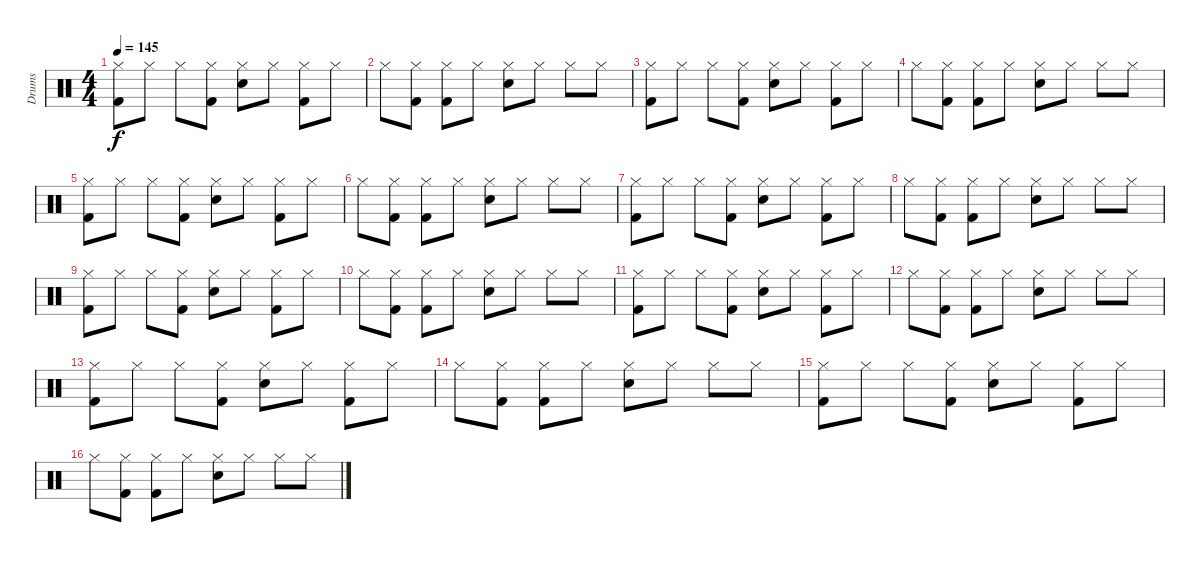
\track ("Drums" "Drums") {instrument percussion}
\staff {score}
\articulation defaults
\ts (4 4)
\tempo 145
\clef neutral
\ks c
("Kick (hit) 2" "Hi-Hat (closed)").8{dy f} "Hi-Hat (closed)".8 "Hi-Hat (closed)".8 ("Kick (hit) 2" "Hi-Hat (closed)").8 ("Electric Snare (hit)" "Hi-Hat (closed)").8 "Hi-Hat (closed)".8 ("Kick (hit) 2" "Hi-Hat (closed)").8 "Hi-Hat (closed)".8 |
"Hi-Hat (closed)".8 ("Kick (hit) 2" "Hi-Hat (closed)").8 ("Kick (hit) 2" "Hi-Hat (closed)").8 "Hi-Hat (closed)".8 ("Electric Snare (hit)" "Hi-Hat (closed)").8 "Hi-Hat (closed)".8 "Hi-Hat (closed)".8 "Hi-Hat (closed)".8 |
("Kick (hit) 2" "Hi-Hat (closed)").8 "Hi-Hat (closed)".8 "Hi-Hat (closed)".8 ("Kick (hit) 2" "Hi-Hat (closed)").8 ("Electric Snare (hit)" "Hi-Hat (closed)").8 "Hi-Hat (closed)".8 ("Kick (hit) 2" "Hi-Hat (closed)").8 "Hi-Hat (closed)".8 |
"Hi-Hat (closed)".8 ("Kick (hit) 2" "Hi-Hat (closed)").8 ("Kick (hit) 2" "Hi-Hat (closed)").8 "Hi-Hat (closed)".8 ("Electric Snare (hit)" "Hi-Hat (closed)").8 "Hi-Hat (closed)".8 "Hi-Hat (closed)".8 "Hi-Hat (closed)".8 |
("Kick (hit) 2" "Hi-Hat (closed)").8 "Hi-Hat (closed)".8 "Hi-Hat (closed)".8 ("Kick (hit) 2" "Hi-Hat (closed)").8 ("Electric Snare (hit)" "Hi-Hat (closed)").8 "Hi-Hat (closed)".8 ("Kick (hit) 2" "Hi-Hat (closed)").8 "Hi-Hat (closed)".8 |
"Hi-Hat (closed)".8 ("Kick (hit) 2" "Hi-Hat (closed)").8 ("Kick (hit) 2" "Hi-Hat (closed)").8 "Hi-Hat (closed)".8 ("Electric Snare (hit)" "Hi-Hat (closed)").8 "Hi-Hat (closed)".8 "Hi-Hat (closed)".8 "Hi-Hat (closed)".8 |
("Kick (hit) 2" "Hi-Hat (closed)").8 "Hi-Hat (closed)".8 "Hi-Hat (closed)".8 ("Kick (hit) 2" "Hi-Hat (closed)").8 ("Electric Snare (hit)" "Hi-Hat (closed)").8 "Hi-Hat (closed)".8 ("Kick (hit) 2" "Hi-Hat (closed)").8 "Hi-Hat (closed)".8 |
"Hi-Hat (closed)".8 ("Kick (hit) 2" "Hi-Hat (closed)").8 ("Kick (hit) 2" "Hi-Hat (closed)").8 "Hi-Hat (closed)".8 ("Electric Snare (hit)" "Hi-Hat (closed)").8 "Hi-Hat (closed)".8 "Hi-Hat (closed)".8 "Hi-Hat (closed)".8 |
("Kick (hit) 2" "Hi-Hat (closed)").8 "Hi-Hat (closed)".8 "Hi-Hat (closed)".8 ("Kick (hit) 2" "Hi-Hat (closed)").8 ("Electric Snare (hit)" "Hi-Hat (closed)").8 "Hi-Hat (closed)".8 ("Kick (hit) 2" "Hi-Hat (closed)").8 "Hi-Hat (closed)".8 |
"Hi-Hat (closed)".8 ("Kick (hit) 2" "Hi-Hat (closed)").8 ("Kick (hit) 2" "Hi-Hat (closed)").8 "Hi-Hat (closed)".8 ("Electric Snare (hit)" "Hi-Hat (closed)").8 "Hi-Hat (closed)".8 "Hi-Hat (closed)".8 "Hi-Hat (closed)".8 |
("Kick (hit) 2" "Hi-Hat (closed)").8 "Hi-Hat (closed)".8 "Hi-Hat (closed)".8 ("Kick (hit) 2" "Hi-Hat (closed)").8 ("Electric Snare (hit)" "Hi-Hat (closed)").8 "Hi-Hat (closed)".8 ("Kick (hit) 2" "Hi-Hat (closed)").8 "Hi-Hat (closed)".8 |
"Hi-Hat (closed)".8 ("Kick (hit) 2" "Hi-Hat (closed)").8 ("Kick (hit) 2" "Hi-Hat (closed)").8 "Hi-Hat (closed)".8 ("Electric Snare (hit)" "Hi-Hat (closed)").8 "Hi-Hat (closed)".8 "Hi-Hat (closed)".8 "Hi-Hat (closed)".8 |
("Kick (hit) 2" "Hi-Hat (closed)").8 "Hi-Hat (closed)".8 "Hi-Hat (closed)".8 ("Kick (hit) 2" "Hi-Hat (closed)").8 ("Electric Snare (hit)" "Hi-Hat (closed)").8 "Hi-Hat (closed)".8 ("Kick (hit) 2" "Hi-Hat (closed)").8 "Hi-Hat (closed)".8 |
"Hi-Hat (closed)".8 ("Kick (hit) 2" "Hi-Hat (closed)").8 ("Kick (hit) 2" "Hi-Hat (closed)").8 "Hi-Hat (closed)".8 ("Electric Snare (hit)" "Hi-Hat (closed)").8 "Hi-Hat (closed)".8 "Hi-Hat (closed)".8 "Hi-Hat (closed)".8 |
("Kick (hit) 2" "Hi-Hat (closed)").8 "Hi-Hat (closed)".8 "Hi-Hat (closed)".8 ("Kick (hit) 2" "Hi-Hat (closed)").8 ("Electric Snare (hit)" "Hi-Hat (closed)").8 "Hi-Hat (closed)".8 ("Kick (hit) 2" "Hi-Hat (closed)").8 "Hi-Hat (closed)".8 |
"Hi-Hat (closed)".8 ("Kick (hit) 2" "Hi-Hat (closed)").8 ("Kick (hit) 2" "Hi-Hat (closed)").8 "Hi-Hat (closed)".8 ("Electric Snare (hit)" "Hi-Hat (closed)").8 "Hi-Hat (closed)".8 "Hi-Hat (closed)".8 "Hi-Hat (closed)".8
